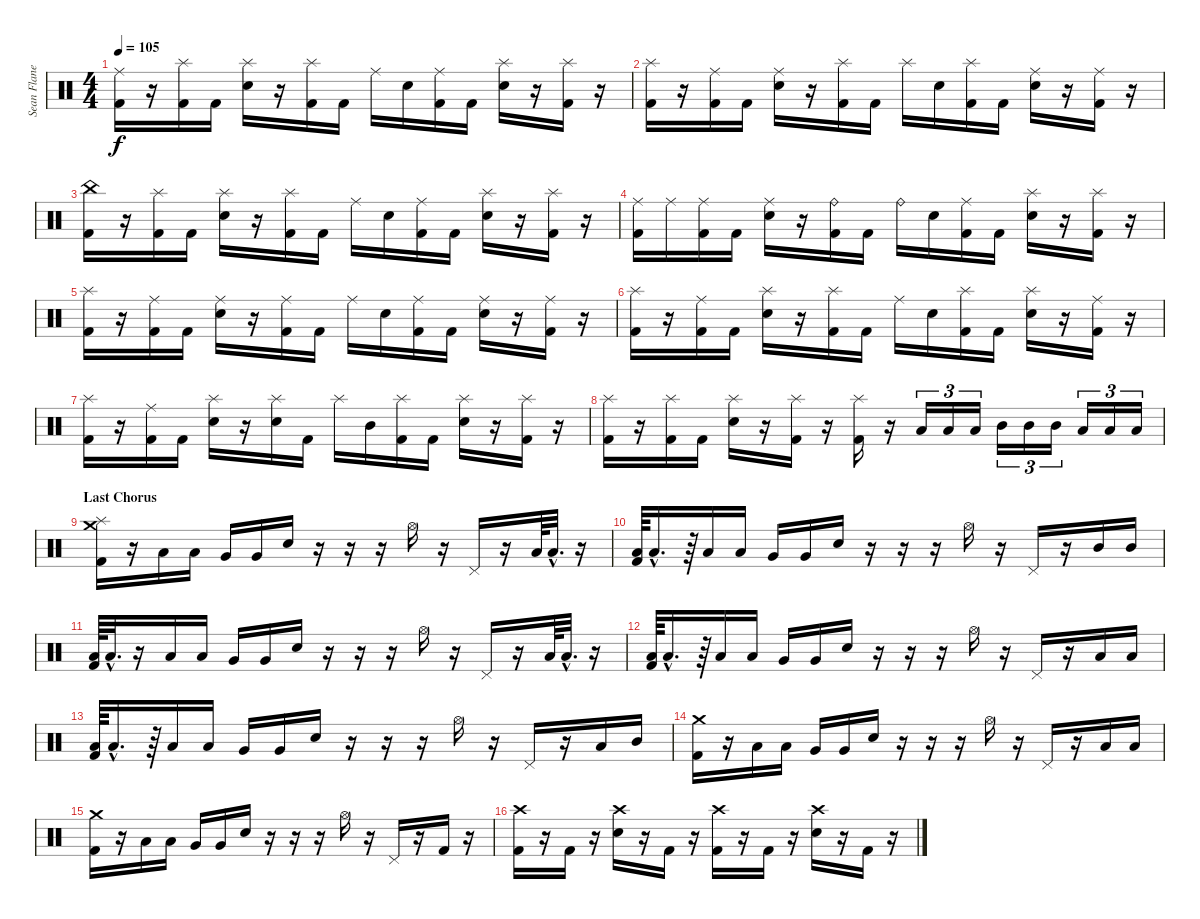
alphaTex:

\track ("Sean Flanegan [Drums]" "Sean Flane") {instrument percussion}
\staff {score}
\articulation defaults
\ts (4 4)
\tempo 105
\clef neutral
\ks c
("Ride (middle)" "Kick (hit) 2").16{dy f} r.16 ("Splash (hit)" "Kick (hit) 2").16 "Kick (hit) 2".16 ("Splash (hit)" "Electric Snare (hit)").16 r.16 ("Splash (hit)" "Kick (hit) 2").16 "Kick (hit) 2".16 "Ride (middle)".16 "Electric Snare (hit)".16 ("Ride (middle)" "Kick (hit) 2").16 "Kick (hit) 2".16 ("Splash (hit)" "Electric Snare (hit)").16 r.16 ("Splash (hit)" "Kick (hit) 2").16 r.16 |
("Splash (hit)" "Kick (hit) 2").16 r.16 ("Ride (middle)" "Kick (hit) 2").16 "Kick (hit) 2".16 ("Ride (middle)" "Electric Snare (hit)").16 r.16 ("Splash (hit)" "Kick (hit) 2").16 "Kick (hit) 2".16 "Splash (hit)".16 "Electric Snare (hit)".16 ("Splash (hit)" "Kick (hit) 2").16 "Kick (hit) 2".16 ("Ride (middle)" "Electric Snare (hit)").16 r.16 ("Ride (middle)" "Kick (hit) 2").16 r.16 |
("China (hit)" "Kick (hit) 2").16 r.16 ("Splash (hit)" "Kick (hit) 2").16 "Kick (hit) 2".16 ("Splash (hit)" "Electric Snare (hit)").16 r.16 ("Splash (hit)" "Kick (hit) 2").16 "Kick (hit) 2".16 "Ride (middle)".16 "Electric Snare (hit)".16 ("Ride (middle)" "Kick (hit) 2").16 "Kick (hit) 2".16 ("Splash (hit)" "Electric Snare (hit)").16 r.16 ("Splash (hit)" "Kick (hit) 2").16 r.16 |
("Ride (middle)" "Kick (hit) 2").16 "Ride (middle)".16 ("Ride (middle)" "Kick (hit) 2").16 "Kick (hit) 2".16 ("Ride (middle)" "Electric Snare (hit)").16 r.16 ("Ride (bell)" "Kick (hit) 2").16 "Kick (hit) 2".16 "Ride (bell)".16 "Electric Snare (hit)".16 ("Ride (middle)" "Kick (hit) 2").16 "Kick (hit) 2".16 ("Splash (hit)" "Electric Snare (hit)").16 r.16 ("Splash (hit)" "Kick (hit) 2").16 r.16 |
("Splash (hit)" "Kick (hit) 2").16 r.16 ("Ride (middle)" "Kick (hit) 2").16 "Kick (hit) 2".16 ("Ride (middle)" "Electric Snare (hit)").16 r.16 ("Ride (middle)" "Kick (hit) 2").16 "Kick (hit) 2".16 "Ride (middle)".16 "Electric Snare (hit)".16 ("Ride (middle)" "Kick (hit) 2").16 "Kick (hit) 2".16 ("Ride (middle)" "Electric Snare (hit)").16 r.16 ("Ride (middle)" "Kick (hit) 2").16 r.16 |
("Splash (hit)" "Kick (hit) 2").16 r.16 ("Ride (middle)" "Kick (hit) 2").16 "Kick (hit) 2".16 ("Splash (hit)" "Electric Snare (hit)").16 r.16 ("Splash (hit)" "Kick (hit) 2").16 "Kick (hit) 2".16 "Ride (middle)".16 "Electric Snare (hit)".16 ("Splash (hit)" "Kick (hit) 2").16 "Kick (hit) 2".16 ("Splash (hit)" "Electric Snare (hit)").16 r.16 ("Ride (middle)" "Kick (hit) 2").16 r.16 |
("Splash (hit)" "Kick (hit) 2").16 r.16 ("Ride (middle)" "Kick (hit) 2").16 "Kick (hit) 2".16 ("Splash (hit)" "Electric Snare (hit)").16 r.16 ("Splash (hit)" "Electric Snare (hit)").16 "Kick (hit) 2".16 "Splash (hit)".16 "Mid Tom (hit)".16 ("Splash (hit)" "Kick (hit) 2").16 "Kick (hit) 2".16 ("Splash (hit)" "Electric Snare (hit)").16 r.16 ("Splash (hit)" "Kick (hit) 2").16 r.16 |
("Splash (hit)" "Kick (hit) 2").16 r.16 ("Splash (hit)" "Kick (hit) 2").16 "Kick (hit) 2".16 ("Splash (hit)" "Electric Snare (hit)").16 r.16 ("Splash (hit)" "Kick (hit) 2").16 r.16 ("Splash (hit)" "Kick (hit) 2").16 r.16 "Low Tom (hit)".16{tu (3 2)} "Low Tom (hit)".16{tu (3 2)} "Low Tom (hit)".16{tu (3 2)} "Mid Tom (hit)".16{tu (3 2)} "Mid Tom (hit)".16{tu (3 2)} "Mid Tom (hit)".16{tu (3 2)} "Low Tom (hit)".16{tu (3 2)} "Low Tom (hit)".16{tu (3 2)} "Low Tom (hit)".16{tu (3 2)} |
\section ("" "Last Chorus")
("Crash medium (hit)" "Splash (hit)" "Kick (hit) 2").16 r.16 "Low Tom (hit)".16 "Low Tom (hit)".16 "Very Low Tom (hit)".16 "Very Low Tom (hit)".16 "Electric Snare (hit)".16 r.16 r.16 r.16 "Hi-Hat (open)".16 r.16 "Pedal Hi-Hat (hit)".16 r.16 "Low Tom (hit)".64 "Low Tom (hit)"{hac}.32{d} r.16 |
("Low Tom (hit)" "Kick (hit) 2").64 "Low Tom (hit)"{hac}.16{d} r.64 "Low Tom (hit)".16 "Low Tom (hit)".16 "Very Low Tom (hit)".16 "Very Low Tom (hit)".16 "Electric Snare (hit)".16 r.16 r.16 r.16 "Hi-Hat (open)".16 r.16 "Pedal Hi-Hat (hit)".16 r.16 "Mid Tom (hit)".16 "Mid Tom (hit)".16 |
("Low Tom (hit)" "Kick (hit) 2").64 "Low Tom (hit)"{hac}.32{d} r.16 "Low Tom (hit)".16 "Low Tom (hit)".16 "Very Low Tom (hit)".16 "Very Low Tom (hit)".16 "Electric Snare (hit)".16 r.16 r.16 r.16 "Hi-Hat (open)".16 r.16 "Pedal Hi-Hat (hit)".16 r.16 "Low Tom (hit)".64 "Low Tom (hit)"{hac}.32{d} r.16 |
("Low Tom (hit)" "Kick (hit) 2").64 "Low Tom (hit)"{hac}.16{d} r.64 "Low Tom (hit)".16 "Low Tom (hit)".16 "Very Low Tom (hit)".16 "Very Low Tom (hit)".16 "Electric Snare (hit)".16 r.16 r.16 r.16 "Hi-Hat (open)".16 r.16 "Pedal Hi-Hat (hit)".16 r.16 "Low Tom (hit)".16 "Low Tom (hit)".16 |
("Low Tom (hit)" "Kick (hit) 2").64 "Low Tom (hit)"{hac}.16{d} r.64 "Low Tom (hit)".16 "Low Tom (hit)".16 "Very Low Tom (hit)".16 "Very Low Tom (hit)".16 "Electric Snare (hit)".16 r.16 r.16 r.16 "Hi-Hat (open)".16 r.16 "Pedal Hi-Hat (hit)".16 r.16 "Low Tom (hit)".16 "Mid Tom (hit)".16 |
("Crash medium (hit)" "Kick (hit) 2").16 r.16 "Low Tom (hit)".16 "Low Tom (hit)".16 "Very Low Tom (hit)".16 "Very Low Tom (hit)".16 "Electric Snare (hit)".16 r.16 r.16 r.16 "Hi-Hat (open)".16 r.16 "Pedal Hi-Hat (hit)".16 r.16 "Low Tom (hit)".16 "Low Tom (hit)".16 |
("Crash medium (hit)" "Kick (hit) 2").16 r.16 "Low Tom (hit)".16 "Low Tom (hit)".16 "Very Low Tom (hit)".16 "Very Low Tom (hit)".16 "Electric Snare (hit)".16 r.16 r.16 r.16 "Hi-Hat (open)".16 r.16 "Pedal Hi-Hat (hit)".16 r.16 "Kick (hit) 2".16 r.16 |
("Crash high (hit)" "Kick (hit) 2").16 r.16 "Kick (hit) 2".16 r.16 ("Crash high (hit)" "Electric Snare (hit)").16 r.16 "Kick (hit) 2".16 r.16 ("Crash high (hit)" "Kick (hit) 2").16 r.16 "Kick (hit) 2".16 r.16 ("Crash high (hit)" "Electric Snare (hit)").16 r.16 "Kick (hit) 2".16 r.16
